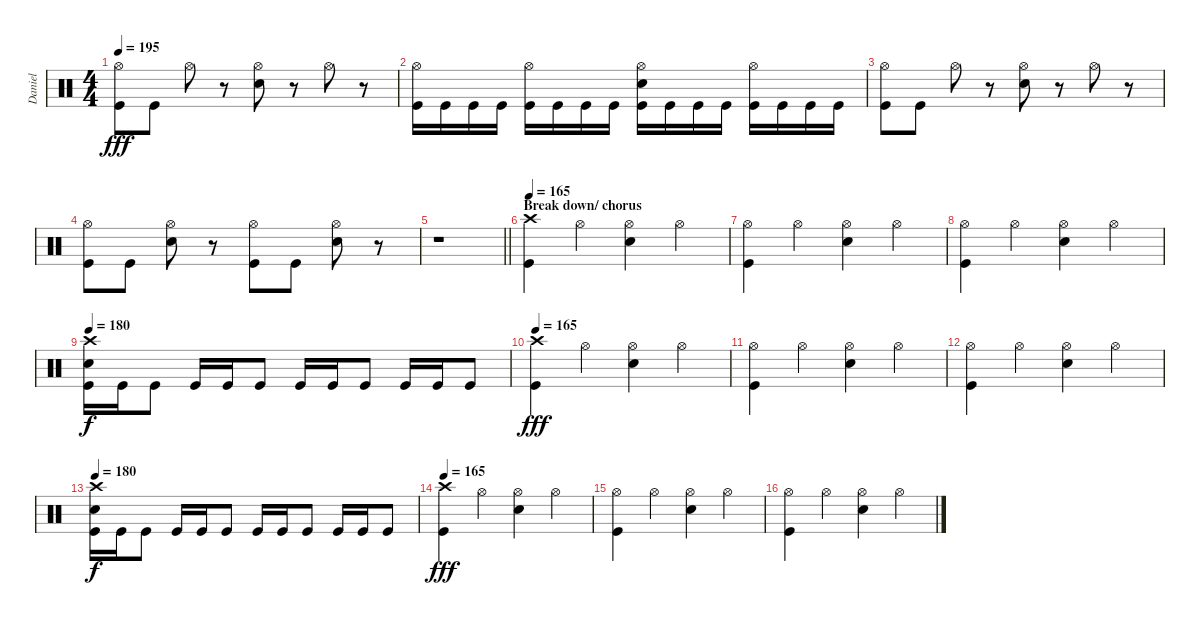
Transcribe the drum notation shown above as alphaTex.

\track ("Daniel" "Daniel") {instrument percussion}
\staff {score}
\articulation defaults
\ts (4 4)
\tempo 195
\clef neutral
\ks c
("Hi-Hat (open)" "Kick (hit)").8{dy fff} "Kick (hit)".8 "Hi-Hat (open)".8 r.8 ("Hi-Hat (open)" "Snare (hit) 2").8 r.8 "Hi-Hat (open)".8 r.8 |
("Hi-Hat (open)" "Kick (hit)").16 "Kick (hit)".16 "Kick (hit)".16 "Kick (hit)".16 ("Hi-Hat (open)" "Kick (hit)").16 "Kick (hit)".16 "Kick (hit)".16 "Kick (hit)".16 ("Hi-Hat (open)" "Snare (hit) 2" "Kick (hit)").16 "Kick (hit)".16 "Kick (hit)".16 "Kick (hit)".16 ("Hi-Hat (open)" "Kick (hit)").16 "Kick (hit)".16 "Kick (hit)".16 "Kick (hit)".16 |
("Hi-Hat (open)" "Kick (hit)").8 "Kick (hit)".8 "Hi-Hat (open)".8 r.8 ("Hi-Hat (open)" "Snare (hit) 2").8 r.8 "Hi-Hat (open)".8 r.8 |
("Hi-Hat (open)" "Kick (hit)").8 "Kick (hit)".8 ("Hi-Hat (open)" "Snare (hit) 2").8 r.8 ("Hi-Hat (open)" "Kick (hit)").8 "Kick (hit)".8 ("Hi-Hat (open)" "Snare (hit) 2").8 r.8 |
\barLineRight lightlight
r.1 |
\section ("" "Break down/ chorus")
\tempo 165
("Crash high (hit)" "Kick (hit)").4 "Hi-Hat (open)".4 ("Hi-Hat (open)" "Snare (hit) 2").4 "Hi-Hat (open)".4 |
("Hi-Hat (open)" "Kick (hit)").4 "Hi-Hat (open)".4 ("Hi-Hat (open)" "Snare (hit) 2").4 "Hi-Hat (open)".4 |
("Hi-Hat (open)" "Kick (hit)").4 "Hi-Hat (open)".4 ("Hi-Hat (open)" "Snare (hit) 2").4 "Hi-Hat (open)".4 |
\tempo 180
("Crash high (hit)" "Snare (hit) 2" "Kick (hit)").16{dy f} "Kick (hit)".16 "Kick (hit)".8 "Kick (hit)".16 "Kick (hit)".16 "Kick (hit)".8 "Kick (hit)".16 "Kick (hit)".16 "Kick (hit)".8 "Kick (hit)".16 "Kick (hit)".16 "Kick (hit)".8 |
\tempo 165
("Crash high (hit)" "Kick (hit)").4{dy fff} "Hi-Hat (open)".4 ("Hi-Hat (open)" "Snare (hit) 2").4 "Hi-Hat (open)".4 |
("Hi-Hat (open)" "Kick (hit)").4 "Hi-Hat (open)".4 ("Hi-Hat (open)" "Snare (hit) 2").4 "Hi-Hat (open)".4 |
("Hi-Hat (open)" "Kick (hit)").4 "Hi-Hat (open)".4 ("Hi-Hat (open)" "Snare (hit) 2").4 "Hi-Hat (open)".4 |
\tempo 180
("Crash high (hit)" "Snare (hit) 2" "Kick (hit)").16{dy f} "Kick (hit)".16 "Kick (hit)".8 "Kick (hit)".16 "Kick (hit)".16 "Kick (hit)".8 "Kick (hit)".16 "Kick (hit)".16 "Kick (hit)".8 "Kick (hit)".16 "Kick (hit)".16 "Kick (hit)".8 |
\tempo 165
("Crash high (hit)" "Kick (hit)").4{dy fff} "Hi-Hat (open)".4 ("Hi-Hat (open)" "Snare (hit) 2").4 "Hi-Hat (open)".4 |
("Hi-Hat (open)" "Kick (hit)").4 "Hi-Hat (open)".4 ("Hi-Hat (open)" "Snare (hit) 2").4 "Hi-Hat (open)".4 |
("Hi-Hat (open)" "Kick (hit)").4 "Hi-Hat (open)".4 ("Hi-Hat (open)" "Snare (hit) 2").4 "Hi-Hat (open)".4
